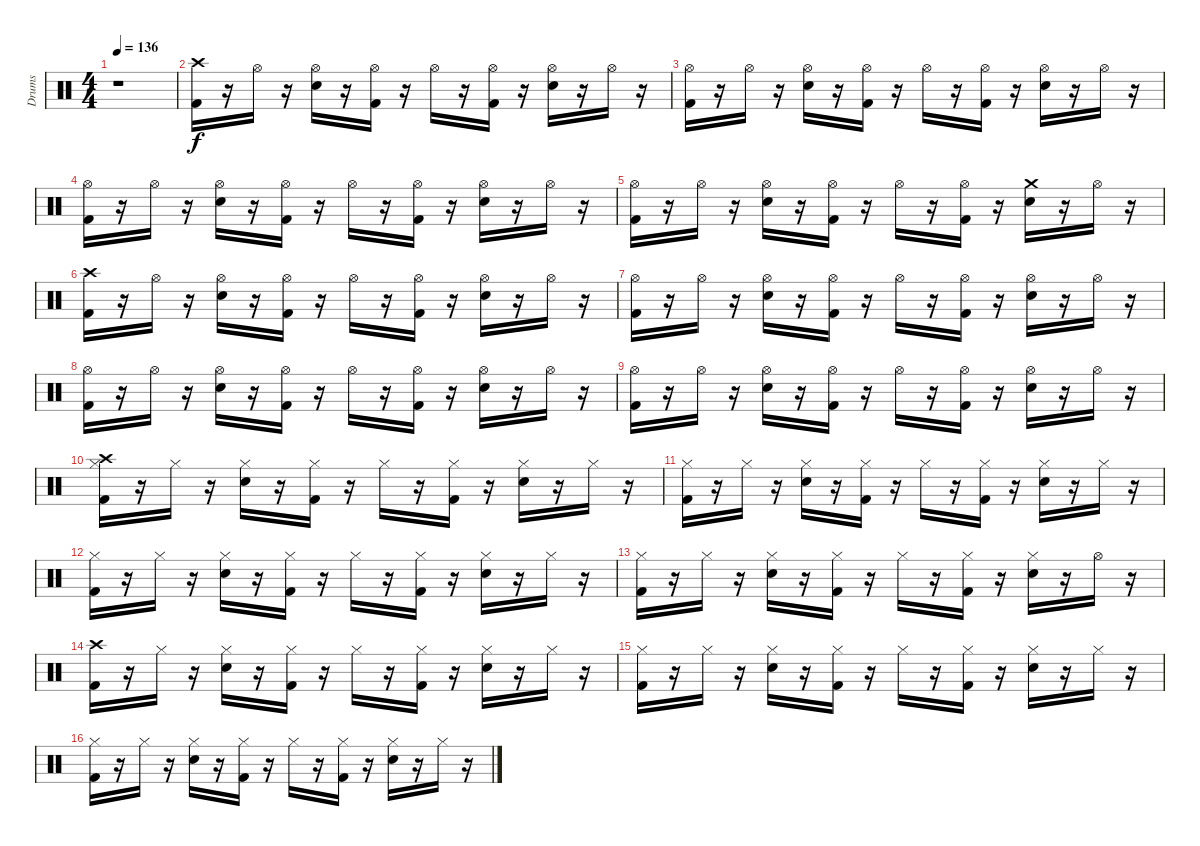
\track ("Drums" "Drums") {instrument percussion}
\staff {score}
\articulation defaults
\ts (4 4)
\tempo 136
\clef neutral
\ks c
r.1{dy f} |
("Kick (hit) 2" "Crash high (hit)").16 r.16 "Hi-Hat (open)".16 r.16 ("Electric Snare (hit)" "Hi-Hat (open)").16 r.16 ("Kick (hit) 2" "Hi-Hat (open)").16 r.16 "Hi-Hat (open)".16 r.16 ("Kick (hit) 2" "Hi-Hat (open)").16 r.16 ("Electric Snare (hit)" "Hi-Hat (open)").16 r.16 "Hi-Hat (open)".16 r.16 |
("Kick (hit) 2" "Hi-Hat (open)").16 r.16 "Hi-Hat (open)".16 r.16 ("Electric Snare (hit)" "Hi-Hat (open)").16 r.16 ("Kick (hit) 2" "Hi-Hat (open)").16 r.16 "Hi-Hat (open)".16 r.16 ("Kick (hit) 2" "Hi-Hat (open)").16 r.16 ("Electric Snare (hit)" "Hi-Hat (open)").16 r.16 "Hi-Hat (open)".16 r.16 |
("Kick (hit) 2" "Hi-Hat (open)").16 r.16 "Hi-Hat (open)".16 r.16 ("Electric Snare (hit)" "Hi-Hat (open)").16 r.16 ("Kick (hit) 2" "Hi-Hat (open)").16 r.16 "Hi-Hat (open)".16 r.16 ("Kick (hit) 2" "Hi-Hat (open)").16 r.16 ("Electric Snare (hit)" "Hi-Hat (open)").16 r.16 "Hi-Hat (open)".16 r.16 |
("Kick (hit) 2" "Hi-Hat (open)").16 r.16 "Hi-Hat (open)".16 r.16 ("Electric Snare (hit)" "Hi-Hat (open)").16 r.16 ("Kick (hit) 2" "Hi-Hat (open)").16 r.16 "Hi-Hat (open)".16 r.16 ("Kick (hit) 2" "Hi-Hat (open)").16 r.16 ("Electric Snare (hit)" "Crash medium (hit)").16 r.16 "Hi-Hat (open)".16 r.16 |
("Kick (hit) 2" "Crash high (hit)").16 r.16 "Hi-Hat (open)".16 r.16 ("Electric Snare (hit)" "Hi-Hat (open)").16 r.16 ("Kick (hit) 2" "Hi-Hat (open)").16 r.16 "Hi-Hat (open)".16 r.16 ("Kick (hit) 2" "Hi-Hat (open)").16 r.16 ("Electric Snare (hit)" "Hi-Hat (open)").16 r.16 "Hi-Hat (open)".16 r.16 |
("Kick (hit) 2" "Hi-Hat (open)").16 r.16 "Hi-Hat (open)".16 r.16 ("Electric Snare (hit)" "Hi-Hat (open)").16 r.16 ("Kick (hit) 2" "Hi-Hat (open)").16 r.16 "Hi-Hat (open)".16 r.16 ("Kick (hit) 2" "Hi-Hat (open)").16 r.16 ("Electric Snare (hit)" "Hi-Hat (open)").16 r.16 "Hi-Hat (open)".16 r.16 |
("Kick (hit) 2" "Hi-Hat (open)").16 r.16 "Hi-Hat (open)".16 r.16 ("Electric Snare (hit)" "Hi-Hat (open)").16 r.16 ("Kick (hit) 2" "Hi-Hat (open)").16 r.16 "Hi-Hat (open)".16 r.16 ("Kick (hit) 2" "Hi-Hat (open)").16 r.16 ("Electric Snare (hit)" "Hi-Hat (open)").16 r.16 "Hi-Hat (open)".16 r.16 |
("Kick (hit) 2" "Hi-Hat (open)").16 r.16 "Hi-Hat (open)".16 r.16 ("Electric Snare (hit)" "Hi-Hat (open)").16 r.16 ("Kick (hit) 2" "Hi-Hat (open)").16 r.16 "Hi-Hat (open)".16 r.16 ("Kick (hit) 2" "Hi-Hat (open)").16 r.16 ("Electric Snare (hit)" "Hi-Hat (open)").16 r.16 "Hi-Hat (open)".16 r.16 |
("Kick (hit) 2" "Hi-Hat (closed)" "Crash high (hit)").16 r.16 "Hi-Hat (closed)".16 r.16 ("Electric Snare (hit)" "Hi-Hat (closed)").16 r.16 ("Kick (hit) 2" "Hi-Hat (closed)").16 r.16 "Hi-Hat (closed)".16 r.16 ("Kick (hit) 2" "Hi-Hat (closed)").16 r.16 ("Electric Snare (hit)" "Hi-Hat (closed)").16 r.16 "Hi-Hat (closed)".16 r.16 |
("Kick (hit) 2" "Hi-Hat (closed)").16 r.16 "Hi-Hat (closed)".16 r.16 ("Electric Snare (hit)" "Hi-Hat (closed)").16 r.16 ("Kick (hit) 2" "Hi-Hat (closed)").16 r.16 "Hi-Hat (closed)".16 r.16 ("Kick (hit) 2" "Hi-Hat (closed)").16 r.16 ("Electric Snare (hit)" "Hi-Hat (closed)").16 r.16 "Hi-Hat (closed)".16 r.16 |
("Kick (hit) 2" "Hi-Hat (closed)").16 r.16 "Hi-Hat (closed)".16 r.16 ("Electric Snare (hit)" "Hi-Hat (closed)").16 r.16 ("Kick (hit) 2" "Hi-Hat (closed)").16 r.16 "Hi-Hat (closed)".16 r.16 ("Kick (hit) 2" "Hi-Hat (closed)").16 r.16 ("Electric Snare (hit)" "Hi-Hat (closed)").16 r.16 "Hi-Hat (closed)".16 r.16 |
("Kick (hit) 2" "Hi-Hat (closed)").16 r.16 "Hi-Hat (closed)".16 r.16 ("Electric Snare (hit)" "Hi-Hat (closed)").16 r.16 ("Kick (hit) 2" "Hi-Hat (closed)").16 r.16 "Hi-Hat (closed)".16 r.16 ("Kick (hit) 2" "Hi-Hat (closed)").16 r.16 ("Electric Snare (hit)" "Hi-Hat (closed)").16 r.16 "Hi-Hat (open)".16 r.16 |
("Kick (hit) 2" "Crash high (hit)").16 r.16 "Hi-Hat (closed)".16 r.16 ("Electric Snare (hit)" "Hi-Hat (closed)").16 r.16 ("Kick (hit) 2" "Hi-Hat (closed)").16 r.16 "Hi-Hat (closed)".16 r.16 ("Kick (hit) 2" "Hi-Hat (closed)").16 r.16 ("Electric Snare (hit)" "Hi-Hat (closed)").16 r.16 "Hi-Hat (closed)".16 r.16 |
("Kick (hit) 2" "Hi-Hat (closed)").16 r.16 "Hi-Hat (closed)".16 r.16 ("Electric Snare (hit)" "Hi-Hat (closed)").16 r.16 ("Kick (hit) 2" "Hi-Hat (closed)").16 r.16 "Hi-Hat (closed)".16 r.16 ("Kick (hit) 2" "Hi-Hat (closed)").16 r.16 ("Electric Snare (hit)" "Hi-Hat (closed)").16 r.16 "Hi-Hat (closed)".16 r.16 |
("Kick (hit) 2" "Hi-Hat (closed)").16 r.16 "Hi-Hat (closed)".16 r.16 ("Electric Snare (hit)" "Hi-Hat (closed)").16 r.16 ("Kick (hit) 2" "Hi-Hat (closed)").16 r.16 "Hi-Hat (closed)".16 r.16 ("Kick (hit) 2" "Hi-Hat (closed)").16 r.16 ("Electric Snare (hit)" "Hi-Hat (closed)").16 r.16 "Hi-Hat (closed)".16 r.16
